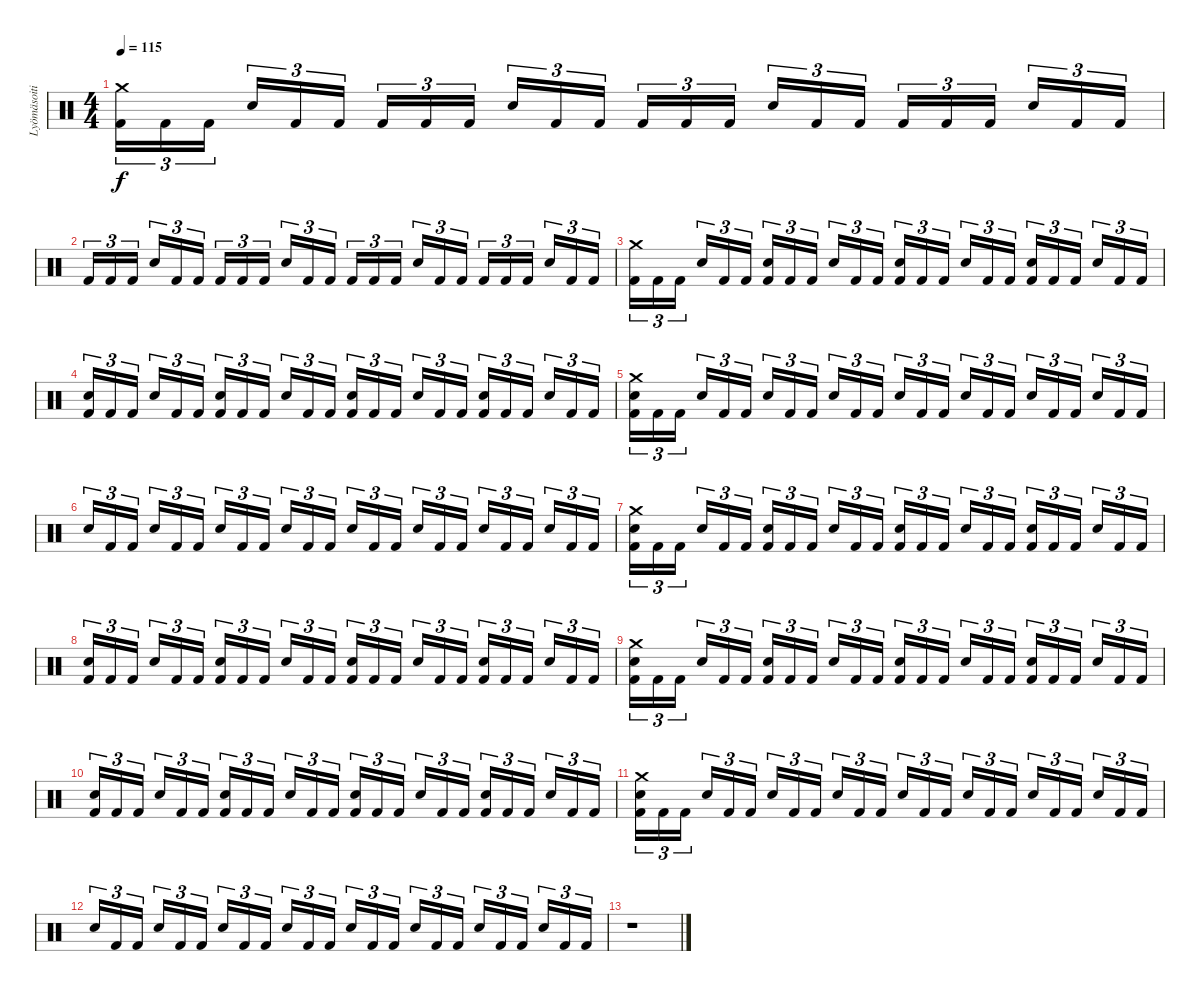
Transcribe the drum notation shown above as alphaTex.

\track ("Lyömäsoitin" "Lyömäsoiti") {instrument percussion}
\staff {score}
\articulation defaults
\ts (4 4)
\tempo 115
\clef neutral
\ks c
("Crash medium (hit)" "Kick (hit) 2").16{tu (3 2) dy f} "Kick (hit) 2".16{tu (3 2)} "Kick (hit) 2".16{tu (3 2)} "Snare (hit) 2".16{tu (3 2)} "Kick (hit) 2".16{tu (3 2)} "Kick (hit) 2".16{tu (3 2)} "Kick (hit) 2".16{tu (3 2)} "Kick (hit) 2".16{tu (3 2)} "Kick (hit) 2".16{tu (3 2)} "Snare (hit) 2".16{tu (3 2)} "Kick (hit) 2".16{tu (3 2)} "Kick (hit) 2".16{tu (3 2)} "Kick (hit) 2".16{tu (3 2)} "Kick (hit) 2".16{tu (3 2)} "Kick (hit) 2".16{tu (3 2)} "Snare (hit) 2".16{tu (3 2)} "Kick (hit) 2".16{tu (3 2)} "Kick (hit) 2".16{tu (3 2)} "Kick (hit) 2".16{tu (3 2)} "Kick (hit) 2".16{tu (3 2)} "Kick (hit) 2".16{tu (3 2)} "Snare (hit) 2".16{tu (3 2)} "Kick (hit) 2".16{tu (3 2)} "Kick (hit) 2".16{tu (3 2)} |
"Kick (hit) 2".16{tu (3 2)} "Kick (hit) 2".16{tu (3 2)} "Kick (hit) 2".16{tu (3 2)} "Snare (hit) 2".16{tu (3 2)} "Kick (hit) 2".16{tu (3 2)} "Kick (hit) 2".16{tu (3 2)} "Kick (hit) 2".16{tu (3 2)} "Kick (hit) 2".16{tu (3 2)} "Kick (hit) 2".16{tu (3 2)} "Snare (hit) 2".16{tu (3 2)} "Kick (hit) 2".16{tu (3 2)} "Kick (hit) 2".16{tu (3 2)} "Kick (hit) 2".16{tu (3 2)} "Kick (hit) 2".16{tu (3 2)} "Kick (hit) 2".16{tu (3 2)} "Snare (hit) 2".16{tu (3 2)} "Kick (hit) 2".16{tu (3 2)} "Kick (hit) 2".16{tu (3 2)} "Kick (hit) 2".16{tu (3 2)} "Kick (hit) 2".16{tu (3 2)} "Kick (hit) 2".16{tu (3 2)} "Snare (hit) 2".16{tu (3 2)} "Kick (hit) 2".16{tu (3 2)} "Kick (hit) 2".16{tu (3 2)} |
("Crash medium (hit)" "Kick (hit) 2").16{tu (3 2)} "Kick (hit) 2".16{tu (3 2)} "Kick (hit) 2".16{tu (3 2)} "Snare (hit) 2".16{tu (3 2)} "Kick (hit) 2".16{tu (3 2)} "Kick (hit) 2".16{tu (3 2)} ("Snare (hit) 2" "Kick (hit) 2").16{tu (3 2)} "Kick (hit) 2".16{tu (3 2)} "Kick (hit) 2".16{tu (3 2)} "Snare (hit) 2".16{tu (3 2)} "Kick (hit) 2".16{tu (3 2)} "Kick (hit) 2".16{tu (3 2)} ("Snare (hit) 2" "Kick (hit) 2").16{tu (3 2)} "Kick (hit) 2".16{tu (3 2)} "Kick (hit) 2".16{tu (3 2)} "Snare (hit) 2".16{tu (3 2)} "Kick (hit) 2".16{tu (3 2)} "Kick (hit) 2".16{tu (3 2)} ("Snare (hit) 2" "Kick (hit) 2").16{tu (3 2)} "Kick (hit) 2".16{tu (3 2)} "Kick (hit) 2".16{tu (3 2)} "Snare (hit) 2".16{tu (3 2)} "Kick (hit) 2".16{tu (3 2)} "Kick (hit) 2".16{tu (3 2)} |
("Snare (hit) 2" "Kick (hit) 2").16{tu (3 2)} "Kick (hit) 2".16{tu (3 2)} "Kick (hit) 2".16{tu (3 2)} "Snare (hit) 2".16{tu (3 2)} "Kick (hit) 2".16{tu (3 2)} "Kick (hit) 2".16{tu (3 2)} ("Snare (hit) 2" "Kick (hit) 2").16{tu (3 2)} "Kick (hit) 2".16{tu (3 2)} "Kick (hit) 2".16{tu (3 2)} "Snare (hit) 2".16{tu (3 2)} "Kick (hit) 2".16{tu (3 2)} "Kick (hit) 2".16{tu (3 2)} ("Snare (hit) 2" "Kick (hit) 2").16{tu (3 2)} "Kick (hit) 2".16{tu (3 2)} "Kick (hit) 2".16{tu (3 2)} "Snare (hit) 2".16{tu (3 2)} "Kick (hit) 2".16{tu (3 2)} "Kick (hit) 2".16{tu (3 2)} ("Snare (hit) 2" "Kick (hit) 2").16{tu (3 2)} "Kick (hit) 2".16{tu (3 2)} "Kick (hit) 2".16{tu (3 2)} "Snare (hit) 2".16{tu (3 2)} "Kick (hit) 2".16{tu (3 2)} "Kick (hit) 2".16{tu (3 2)} |
("Crash medium (hit)" "Snare (hit) 2" "Kick (hit) 2").16{tu (3 2)} "Kick (hit) 2".16{tu (3 2)} "Kick (hit) 2".16{tu (3 2)} "Snare (hit) 2".16{tu (3 2)} "Kick (hit) 2".16{tu (3 2)} "Kick (hit) 2".16{tu (3 2)} "Snare (hit) 2".16{tu (3 2)} "Kick (hit) 2".16{tu (3 2)} "Kick (hit) 2".16{tu (3 2)} "Snare (hit) 2".16{tu (3 2)} "Kick (hit) 2".16{tu (3 2)} "Kick (hit) 2".16{tu (3 2)} "Snare (hit) 2".16{tu (3 2)} "Kick (hit) 2".16{tu (3 2)} "Kick (hit) 2".16{tu (3 2)} "Snare (hit) 2".16{tu (3 2)} "Kick (hit) 2".16{tu (3 2)} "Kick (hit) 2".16{tu (3 2)} "Snare (hit) 2".16{tu (3 2)} "Kick (hit) 2".16{tu (3 2)} "Kick (hit) 2".16{tu (3 2)} "Snare (hit) 2".16{tu (3 2)} "Kick (hit) 2".16{tu (3 2)} "Kick (hit) 2".16{tu (3 2)} |
"Snare (hit) 2".16{tu (3 2)} "Kick (hit) 2".16{tu (3 2)} "Kick (hit) 2".16{tu (3 2)} "Snare (hit) 2".16{tu (3 2)} "Kick (hit) 2".16{tu (3 2)} "Kick (hit) 2".16{tu (3 2)} "Snare (hit) 2".16{tu (3 2)} "Kick (hit) 2".16{tu (3 2)} "Kick (hit) 2".16{tu (3 2)} "Snare (hit) 2".16{tu (3 2)} "Kick (hit) 2".16{tu (3 2)} "Kick (hit) 2".16{tu (3 2)} "Snare (hit) 2".16{tu (3 2)} "Kick (hit) 2".16{tu (3 2)} "Kick (hit) 2".16{tu (3 2)} "Snare (hit) 2".16{tu (3 2)} "Kick (hit) 2".16{tu (3 2)} "Kick (hit) 2".16{tu (3 2)} "Snare (hit) 2".16{tu (3 2)} "Kick (hit) 2".16{tu (3 2)} "Kick (hit) 2".16{tu (3 2)} "Snare (hit) 2".16{tu (3 2)} "Kick (hit) 2".16{tu (3 2)} "Kick (hit) 2".16{tu (3 2)} |
("Crash medium (hit)" "Snare (hit) 2" "Kick (hit) 2").16{tu (3 2)} "Kick (hit) 2".16{tu (3 2)} "Kick (hit) 2".16{tu (3 2)} "Snare (hit) 2".16{tu (3 2)} "Kick (hit) 2".16{tu (3 2)} "Kick (hit) 2".16{tu (3 2)} ("Snare (hit) 2" "Kick (hit) 2").16{tu (3 2)} "Kick (hit) 2".16{tu (3 2)} "Kick (hit) 2".16{tu (3 2)} "Snare (hit) 2".16{tu (3 2)} "Kick (hit) 2".16{tu (3 2)} "Kick (hit) 2".16{tu (3 2)} ("Snare (hit) 2" "Kick (hit) 2").16{tu (3 2)} "Kick (hit) 2".16{tu (3 2)} "Kick (hit) 2".16{tu (3 2)} "Snare (hit) 2".16{tu (3 2)} "Kick (hit) 2".16{tu (3 2)} "Kick (hit) 2".16{tu (3 2)} ("Snare (hit) 2" "Kick (hit) 2").16{tu (3 2)} "Kick (hit) 2".16{tu (3 2)} "Kick (hit) 2".16{tu (3 2)} "Snare (hit) 2".16{tu (3 2)} "Kick (hit) 2".16{tu (3 2)} "Kick (hit) 2".16{tu (3 2)} |
("Snare (hit) 2" "Kick (hit) 2").16{tu (3 2)} "Kick (hit) 2".16{tu (3 2)} "Kick (hit) 2".16{tu (3 2)} "Snare (hit) 2".16{tu (3 2)} "Kick (hit) 2".16{tu (3 2)} "Kick (hit) 2".16{tu (3 2)} ("Snare (hit) 2" "Kick (hit) 2").16{tu (3 2)} "Kick (hit) 2".16{tu (3 2)} "Kick (hit) 2".16{tu (3 2)} "Snare (hit) 2".16{tu (3 2)} "Kick (hit) 2".16{tu (3 2)} "Kick (hit) 2".16{tu (3 2)} ("Snare (hit) 2" "Kick (hit) 2").16{tu (3 2)} "Kick (hit) 2".16{tu (3 2)} "Kick (hit) 2".16{tu (3 2)} "Snare (hit) 2".16{tu (3 2)} "Kick (hit) 2".16{tu (3 2)} "Kick (hit) 2".16{tu (3 2)} ("Snare (hit) 2" "Kick (hit) 2").16{tu (3 2)} "Kick (hit) 2".16{tu (3 2)} "Kick (hit) 2".16{tu (3 2)} "Snare (hit) 2".16{tu (3 2)} "Kick (hit) 2".16{tu (3 2)} "Kick (hit) 2".16{tu (3 2)} |
("Crash medium (hit)" "Snare (hit) 2" "Kick (hit) 2").16{tu (3 2)} "Kick (hit) 2".16{tu (3 2)} "Kick (hit) 2".16{tu (3 2)} "Snare (hit) 2".16{tu (3 2)} "Kick (hit) 2".16{tu (3 2)} "Kick (hit) 2".16{tu (3 2)} ("Snare (hit) 2" "Kick (hit) 2").16{tu (3 2)} "Kick (hit) 2".16{tu (3 2)} "Kick (hit) 2".16{tu (3 2)} "Snare (hit) 2".16{tu (3 2)} "Kick (hit) 2".16{tu (3 2)} "Kick (hit) 2".16{tu (3 2)} ("Snare (hit) 2" "Kick (hit) 2").16{tu (3 2)} "Kick (hit) 2".16{tu (3 2)} "Kick (hit) 2".16{tu (3 2)} "Snare (hit) 2".16{tu (3 2)} "Kick (hit) 2".16{tu (3 2)} "Kick (hit) 2".16{tu (3 2)} ("Snare (hit) 2" "Kick (hit) 2").16{tu (3 2)} "Kick (hit) 2".16{tu (3 2)} "Kick (hit) 2".16{tu (3 2)} "Snare (hit) 2".16{tu (3 2)} "Kick (hit) 2".16{tu (3 2)} "Kick (hit) 2".16{tu (3 2)} |
("Snare (hit) 2" "Kick (hit) 2").16{tu (3 2)} "Kick (hit) 2".16{tu (3 2)} "Kick (hit) 2".16{tu (3 2)} "Snare (hit) 2".16{tu (3 2)} "Kick (hit) 2".16{tu (3 2)} "Kick (hit) 2".16{tu (3 2)} ("Snare (hit) 2" "Kick (hit) 2").16{tu (3 2)} "Kick (hit) 2".16{tu (3 2)} "Kick (hit) 2".16{tu (3 2)} "Snare (hit) 2".16{tu (3 2)} "Kick (hit) 2".16{tu (3 2)} "Kick (hit) 2".16{tu (3 2)} ("Snare (hit) 2" "Kick (hit) 2").16{tu (3 2)} "Kick (hit) 2".16{tu (3 2)} "Kick (hit) 2".16{tu (3 2)} "Snare (hit) 2".16{tu (3 2)} "Kick (hit) 2".16{tu (3 2)} "Kick (hit) 2".16{tu (3 2)} ("Snare (hit) 2" "Kick (hit) 2").16{tu (3 2)} "Kick (hit) 2".16{tu (3 2)} "Kick (hit) 2".16{tu (3 2)} "Snare (hit) 2".16{tu (3 2)} "Kick (hit) 2".16{tu (3 2)} "Kick (hit) 2".16{tu (3 2)} |
("Crash medium (hit)" "Snare (hit) 2" "Kick (hit) 2").16{tu (3 2)} "Kick (hit) 2".16{tu (3 2)} "Kick (hit) 2".16{tu (3 2)} "Snare (hit) 2".16{tu (3 2)} "Kick (hit) 2".16{tu (3 2)} "Kick (hit) 2".16{tu (3 2)} "Snare (hit) 2".16{tu (3 2)} "Kick (hit) 2".16{tu (3 2)} "Kick (hit) 2".16{tu (3 2)} "Snare (hit) 2".16{tu (3 2)} "Kick (hit) 2".16{tu (3 2)} "Kick (hit) 2".16{tu (3 2)} "Snare (hit) 2".16{tu (3 2)} "Kick (hit) 2".16{tu (3 2)} "Kick (hit) 2".16{tu (3 2)} "Snare (hit) 2".16{tu (3 2)} "Kick (hit) 2".16{tu (3 2)} "Kick (hit) 2".16{tu (3 2)} "Snare (hit) 2".16{tu (3 2)} "Kick (hit) 2".16{tu (3 2)} "Kick (hit) 2".16{tu (3 2)} "Snare (hit) 2".16{tu (3 2)} "Kick (hit) 2".16{tu (3 2)} "Kick (hit) 2".16{tu (3 2)} |
"Snare (hit) 2".16{tu (3 2)} "Kick (hit) 2".16{tu (3 2)} "Kick (hit) 2".16{tu (3 2)} "Snare (hit) 2".16{tu (3 2)} "Kick (hit) 2".16{tu (3 2)} "Kick (hit) 2".16{tu (3 2)} "Snare (hit) 2".16{tu (3 2)} "Kick (hit) 2".16{tu (3 2)} "Kick (hit) 2".16{tu (3 2)} "Snare (hit) 2".16{tu (3 2)} "Kick (hit) 2".16{tu (3 2)} "Kick (hit) 2".16{tu (3 2)} "Snare (hit) 2".16{tu (3 2)} "Kick (hit) 2".16{tu (3 2)} "Kick (hit) 2".16{tu (3 2)} "Snare (hit) 2".16{tu (3 2)} "Kick (hit) 2".16{tu (3 2)} "Kick (hit) 2".16{tu (3 2)} "Snare (hit) 2".16{tu (3 2)} "Kick (hit) 2".16{tu (3 2)} "Kick (hit) 2".16{tu (3 2)} "Snare (hit) 2".16{tu (3 2)} "Kick (hit) 2".16{tu (3 2)} "Kick (hit) 2".16{tu (3 2)} |
r.1
